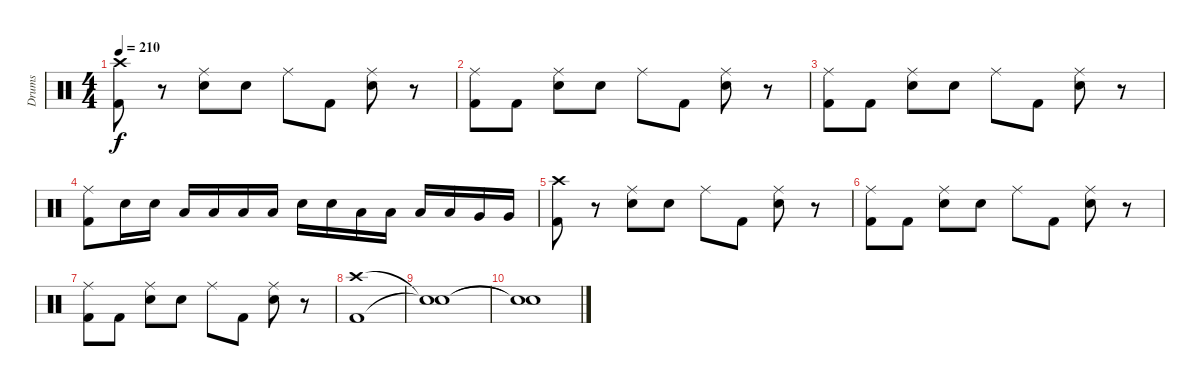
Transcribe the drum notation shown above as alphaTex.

\track ("Drums" "Drums") {instrument percussion}
\staff {score}
\articulation defaults
\ts (4 4)
\tempo 210
\clef neutral
\ks c
("Crash high (hit)" "Kick (hit) 2").8{dy f} r.8 ("Ride (middle)" "Electric Snare (hit)").8 "Electric Snare (hit)".8 "Ride (middle)".8 "Kick (hit) 2".8 ("Ride (middle)" "Electric Snare (hit)").8 r.8 |
("Ride (middle)" "Kick (hit) 2").8 "Kick (hit) 2".8 ("Ride (middle)" "Electric Snare (hit)").8 "Electric Snare (hit)".8 "Ride (middle)".8 "Kick (hit) 2".8 ("Ride (middle)" "Electric Snare (hit)").8 r.8 |
("Ride (middle)" "Kick (hit) 2").8 "Kick (hit) 2".8 ("Ride (middle)" "Electric Snare (hit)").8 "Electric Snare (hit)".8 "Ride (middle)".8 "Kick (hit) 2".8 ("Ride (middle)" "Electric Snare (hit)").8 r.8 |
("Ride (middle)" "Kick (hit) 2").8 "Electric Snare (hit)".16 "Electric Snare (hit)".16 "Low Tom (hit)".16 "Low Tom (hit)".16 "Low Tom (hit)".16 "Low Tom (hit)".16 "Electric Snare (hit)".16 "Electric Snare (hit)".16 "Low Tom (hit)".16 "Low Tom (hit)".16 "Low Tom (hit)".16 "Low Tom (hit)".16 "Very Low Tom (hit)".16 "Very Low Tom (hit)".16 |
("Crash high (hit)" "Kick (hit) 2").8 r.8 ("Ride (middle)" "Electric Snare (hit)").8 "Electric Snare (hit)".8 "Ride (middle)".8 "Kick (hit) 2".8 ("Ride (middle)" "Electric Snare (hit)").8 r.8 |
("Ride (middle)" "Kick (hit) 2").8 "Kick (hit) 2".8 ("Ride (middle)" "Electric Snare (hit)").8 "Electric Snare (hit)".8 "Ride (middle)".8 "Kick (hit) 2".8 ("Ride (middle)" "Electric Snare (hit)").8 r.8 |
("Ride (middle)" "Kick (hit) 2").8 "Kick (hit) 2".8 ("Ride (middle)" "Electric Snare (hit)").8 "Electric Snare (hit)".8 "Ride (middle)".8 "Kick (hit) 2".8 ("Ride (middle)" "Electric Snare (hit)").8 r.8 |
("Crash high (hit)" "Kick (hit) 2").1 |
("Snare (hit)"{t} "Snare (hit)"{t}).1 |
("Snare (hit)"{t} "Snare (hit)"{t}).1
